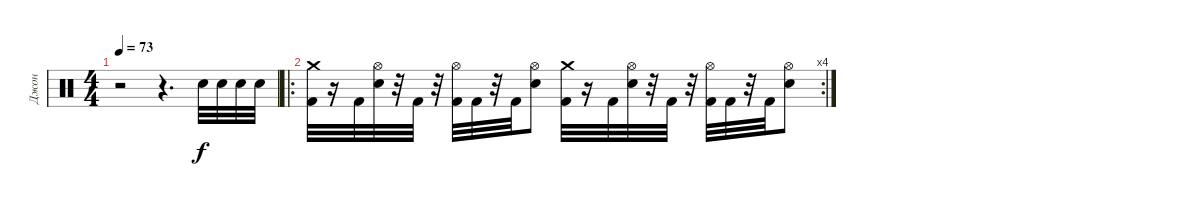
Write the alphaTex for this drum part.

\track ("Джон" "Джон") {instrument percussion}
\staff {score}
\articulation defaults
\ts (4 4)
\tempo 73
\clef neutral
\ks c
r.2{dy f} r.4{d} "Electric Snare (hit)".32 "Electric Snare (hit)".32 "Electric Snare (hit)".32 "Electric Snare (hit)".32 |
\ro
\rc 4
("Crash medium (hit)" "Kick (hit) 2").32 r.16 "Kick (hit) 2".32 ("Hi-Hat (open)" "Electric Snare (hit)").32 r.32 "Kick (hit) 2".32 r.32 ("Hi-Hat (open)" "Kick (hit) 2").32 "Kick (hit) 2".32 r.32 "Kick (hit) 2".32 ("Hi-Hat (open)" "Electric Snare (hit)").8 ("Crash medium (hit)" "Kick (hit) 2").32 r.16 "Kick (hit) 2".32 ("Hi-Hat (open)" "Electric Snare (hit)").32 r.32 "Kick (hit) 2".32 r.32 ("Hi-Hat (open)" "Kick (hit) 2").32 "Kick (hit) 2".32 r.32 "Kick (hit) 2".32 ("Hi-Hat (open)" "Electric Snare (hit)").8
